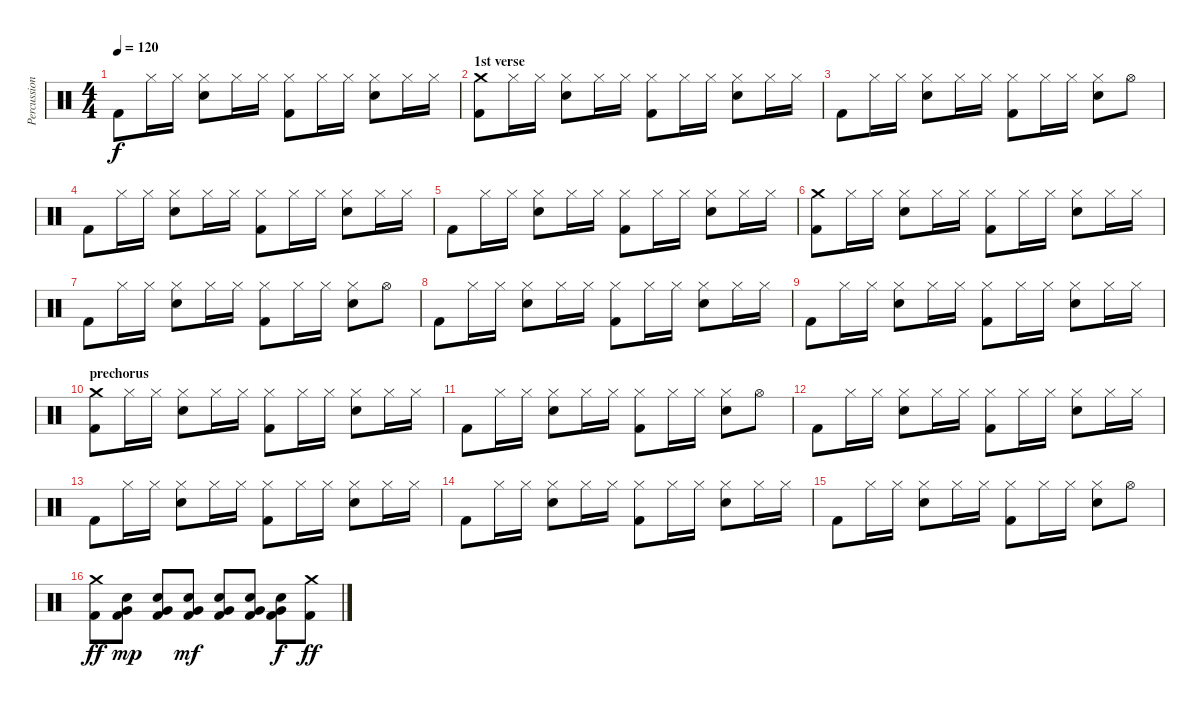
\track ("Percussion" "Percussion") {instrument percussion}
\staff {score}
\articulation defaults
\ts (4 4)
\tempo 120
\clef neutral
\ks c "Kick (hit) 2".8{dy f} "Hi-Hat (closed)".16 "Hi-Hat (closed)".16
("Hi-Hat (closed)" "Snare (hit) 2").8 "Hi-Hat (closed)".16 "Hi-Hat (closed)".16 ("Hi-Hat (closed)" "Kick (hit) 2").8 "Hi-Hat (closed)".16 "Hi-Hat (closed)".16 ("Hi-Hat (closed)" "Snare (hit) 2").8 "Hi-Hat (closed)".16 "Hi-Hat (closed)".16 |
\section ("" "1st verse")
("Crash medium (hit)" "Kick (hit) 2").8 "Hi-Hat (closed)".16 "Hi-Hat (closed)".16 ("Hi-Hat (closed)" "Snare (hit) 2").8 "Hi-Hat (closed)".16 "Hi-Hat (closed)".16 ("Hi-Hat (closed)" "Kick (hit) 2").8 "Hi-Hat (closed)".16 "Hi-Hat (closed)".16 ("Hi-Hat (closed)" "Snare (hit) 2").8 "Hi-Hat (closed)".16 "Hi-Hat (closed)".16 |
"Kick (hit) 2".8 "Hi-Hat (closed)".16 "Hi-Hat (closed)".16 ("Hi-Hat (closed)" "Snare (hit) 2").8 "Hi-Hat (closed)".16 "Hi-Hat (closed)".16 ("Hi-Hat (closed)" "Kick (hit) 2").8 "Hi-Hat (closed)".16 "Hi-Hat (closed)".16 ("Hi-Hat (closed)" "Snare (hit) 2").8 "Hi-Hat (open)".8 |
"Kick (hit) 2".8 "Hi-Hat (closed)".16 "Hi-Hat (closed)".16 ("Hi-Hat (closed)" "Snare (hit) 2").8 "Hi-Hat (closed)".16 "Hi-Hat (closed)".16 ("Hi-Hat (closed)" "Kick (hit) 2").8 "Hi-Hat (closed)".16 "Hi-Hat (closed)".16 ("Hi-Hat (closed)" "Snare (hit) 2").8 "Hi-Hat (closed)".16 "Hi-Hat (closed)".16 |
"Kick (hit) 2".8 "Hi-Hat (closed)".16 "Hi-Hat (closed)".16 ("Hi-Hat (closed)" "Snare (hit) 2").8 "Hi-Hat (closed)".16 "Hi-Hat (closed)".16 ("Hi-Hat (closed)" "Kick (hit) 2").8 "Hi-Hat (closed)".16 "Hi-Hat (closed)".16 ("Hi-Hat (closed)" "Snare (hit) 2").8 "Hi-Hat (closed)".16 "Hi-Hat (closed)".16 |
("Crash medium (hit)" "Kick (hit) 2").8 "Hi-Hat (closed)".16 "Hi-Hat (closed)".16 ("Hi-Hat (closed)" "Snare (hit) 2").8 "Hi-Hat (closed)".16 "Hi-Hat (closed)".16 ("Hi-Hat (closed)" "Kick (hit) 2").8 "Hi-Hat (closed)".16 "Hi-Hat (closed)".16 ("Hi-Hat (closed)" "Snare (hit) 2").8 "Hi-Hat (closed)".16 "Hi-Hat (closed)".16 |
"Kick (hit) 2".8 "Hi-Hat (closed)".16 "Hi-Hat (closed)".16 ("Hi-Hat (closed)" "Snare (hit) 2").8 "Hi-Hat (closed)".16 "Hi-Hat (closed)".16 ("Hi-Hat (closed)" "Kick (hit) 2").8 "Hi-Hat (closed)".16 "Hi-Hat (closed)".16 ("Hi-Hat (closed)" "Snare (hit) 2").8 "Hi-Hat (open)".8 |
"Kick (hit) 2".8 "Hi-Hat (closed)".16 "Hi-Hat (closed)".16 ("Hi-Hat (closed)" "Snare (hit) 2").8 "Hi-Hat (closed)".16 "Hi-Hat (closed)".16 ("Hi-Hat (closed)" "Kick (hit) 2").8 "Hi-Hat (closed)".16 "Hi-Hat (closed)".16 ("Hi-Hat (closed)" "Snare (hit) 2").8 "Hi-Hat (closed)".16 "Hi-Hat (closed)".16 |
"Kick (hit) 2".8 "Hi-Hat (closed)".16 "Hi-Hat (closed)".16 ("Hi-Hat (closed)" "Snare (hit) 2").8 "Hi-Hat (closed)".16 "Hi-Hat (closed)".16 ("Hi-Hat (closed)" "Kick (hit) 2").8 "Hi-Hat (closed)".16 "Hi-Hat (closed)".16 ("Hi-Hat (closed)" "Snare (hit) 2").8 "Hi-Hat (closed)".16 "Hi-Hat (closed)".16 |
\section ("" "prechorus")
("Crash medium (hit)" "Kick (hit) 2").8 "Hi-Hat (closed)".16 "Hi-Hat (closed)".16 ("Hi-Hat (closed)" "Snare (hit) 2").8 "Hi-Hat (closed)".16 "Hi-Hat (closed)".16 ("Hi-Hat (closed)" "Kick (hit) 2").8 "Hi-Hat (closed)".16 "Hi-Hat (closed)".16 ("Hi-Hat (closed)" "Snare (hit) 2").8 "Hi-Hat (closed)".16 "Hi-Hat (closed)".16 |
"Kick (hit) 2".8 "Hi-Hat (closed)".16 "Hi-Hat (closed)".16 ("Hi-Hat (closed)" "Snare (hit) 2").8 "Hi-Hat (closed)".16 "Hi-Hat (closed)".16 ("Hi-Hat (closed)" "Kick (hit) 2").8 "Hi-Hat (closed)".16 "Hi-Hat (closed)".16 ("Hi-Hat (closed)" "Snare (hit) 2").8 "Hi-Hat (open)".8 |
"Kick (hit) 2".8 "Hi-Hat (closed)".16 "Hi-Hat (closed)".16 ("Hi-Hat (closed)" "Snare (hit) 2").8 "Hi-Hat (closed)".16 "Hi-Hat (closed)".16 ("Hi-Hat (closed)" "Kick (hit) 2").8 "Hi-Hat (closed)".16 "Hi-Hat (closed)".16 ("Hi-Hat (closed)" "Snare (hit) 2").8 "Hi-Hat (closed)".16 "Hi-Hat (closed)".16 |
"Kick (hit) 2".8 "Hi-Hat (closed)".16 "Hi-Hat (closed)".16 ("Hi-Hat (closed)" "Snare (hit) 2").8 "Hi-Hat (closed)".16 "Hi-Hat (closed)".16 ("Hi-Hat (closed)" "Kick (hit) 2").8 "Hi-Hat (closed)".16 "Hi-Hat (closed)".16 ("Hi-Hat (closed)" "Snare (hit) 2").8 "Hi-Hat (closed)".16 "Hi-Hat (closed)".16 |
"Kick (hit) 2".8 "Hi-Hat (closed)".16 "Hi-Hat (closed)".16 ("Hi-Hat (closed)" "Snare (hit) 2").8 "Hi-Hat (closed)".16 "Hi-Hat (closed)".16 ("Hi-Hat (closed)" "Kick (hit) 2").8 "Hi-Hat (closed)".16 "Hi-Hat (closed)".16 ("Hi-Hat (closed)" "Snare (hit) 2").8 "Hi-Hat (closed)".16 "Hi-Hat (closed)".16 |
"Kick (hit) 2".8 "Hi-Hat (closed)".16 "Hi-Hat (closed)".16 ("Hi-Hat (closed)" "Snare (hit) 2").8 "Hi-Hat (closed)".16 "Hi-Hat (closed)".16 ("Hi-Hat (closed)" "Kick (hit) 2").8 "Hi-Hat (closed)".16 "Hi-Hat (closed)".16 ("Hi-Hat (closed)" "Snare (hit) 2").8 "Hi-Hat (open)".8 |
("Crash medium (hit)" "Kick (hit) 2").8{dy ff} ("Very Low Tom (hit)" "Snare (hit) 2" "Kick (hit) 2").8{dy mp} ("Very Low Tom (hit)" "Snare (hit) 2" "Kick (hit) 2").8 ("Very Low Tom (hit)" "Snare (hit) 2" "Kick (hit) 2").8{dy mf} ("Very Low Tom (hit)" "Snare (hit) 2" "Kick (hit) 2").8 ("Very Low Tom (hit)" "Snare (hit) 2" "Kick (hit) 2").8 ("Very Low Tom (hit)" "Snare (hit) 2" "Kick (hit) 2").8{dy f} ("Crash medium (hit)" "Kick (hit) 2").8{dy ff}
